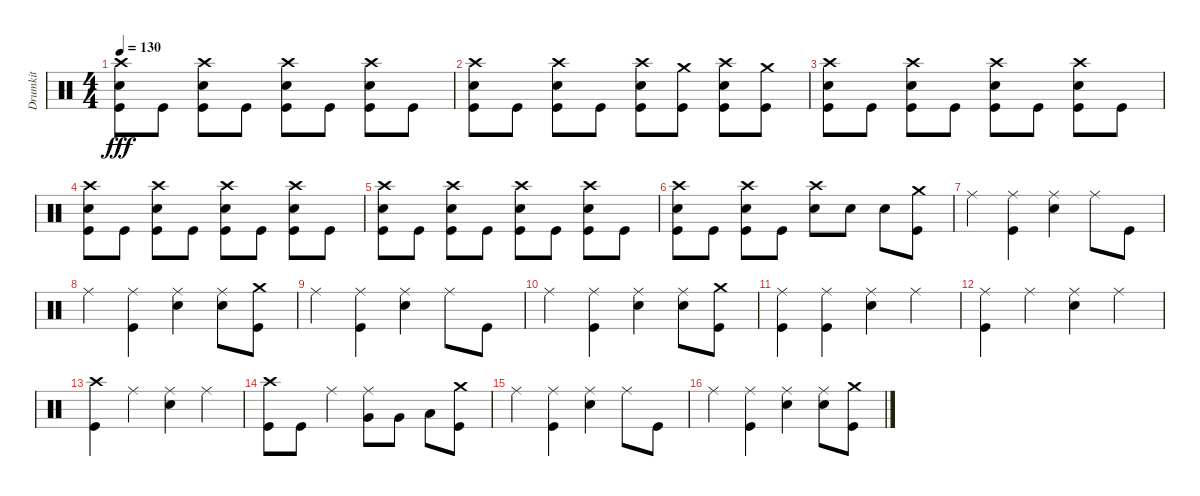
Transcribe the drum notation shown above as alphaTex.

\track ("Drumkit" "Drumkit") {instrument percussion}
\staff {score}
\articulation defaults
\ts (4 4)
\tempo 130
\clef neutral
\ks c
("Kick (hit)" "Snare (hit) 2" "Crash high (hit)").8{dy fff} "Kick (hit)".8 ("Kick (hit)" "Snare (hit) 2" "Crash high (hit)").8 "Kick (hit)".8 ("Kick (hit)" "Snare (hit) 2" "Crash high (hit)").8 "Kick (hit)".8 ("Kick (hit)" "Snare (hit) 2" "Crash high (hit)").8 "Kick (hit)".8 |
("Kick (hit)" "Snare (hit) 2" "Crash high (hit)").8 "Kick (hit)".8 ("Kick (hit)" "Snare (hit) 2" "Crash high (hit)").8 "Kick (hit)".8 ("Kick (hit)" "Snare (hit) 2" "Crash high (hit)").8 ("Kick (hit)" "Crash medium (hit)").8 ("Kick (hit)" "Snare (hit) 2" "Crash high (hit)").8 ("Kick (hit)" "Crash medium (hit)").8 |
("Kick (hit)" "Snare (hit) 2" "Crash high (hit)").8 "Kick (hit)".8 ("Kick (hit)" "Snare (hit) 2" "Crash high (hit)").8 "Kick (hit)".8 ("Kick (hit)" "Snare (hit) 2" "Crash high (hit)").8 "Kick (hit)".8 ("Kick (hit)" "Snare (hit) 2" "Crash high (hit)").8 "Kick (hit)".8 |
("Kick (hit)" "Snare (hit) 2" "Crash high (hit)").8 "Kick (hit)".8 ("Kick (hit)" "Snare (hit) 2" "Crash high (hit)").8 "Kick (hit)".8 ("Kick (hit)" "Snare (hit) 2" "Crash high (hit)").8 "Kick (hit)".8 ("Kick (hit)" "Snare (hit) 2" "Crash high (hit)").8 "Kick (hit)".8 |
("Kick (hit)" "Snare (hit) 2" "Crash high (hit)").8 "Kick (hit)".8 ("Kick (hit)" "Snare (hit) 2" "Crash high (hit)").8 "Kick (hit)".8 ("Kick (hit)" "Snare (hit) 2" "Crash high (hit)").8 "Kick (hit)".8 ("Kick (hit)" "Snare (hit) 2" "Crash high (hit)").8 "Kick (hit)".8 |
("Kick (hit)" "Snare (hit) 2" "Crash high (hit)").8 "Kick (hit)".8 ("Kick (hit)" "Snare (hit) 2" "Crash high (hit)").8 "Kick (hit)".8 ("Snare (hit) 2" "Crash high (hit)").8 "Snare (hit) 2".8 "Snare (hit) 2".8 ("Crash medium (hit)" "Kick (hit)").8 |
"Ride (middle)".4 ("Ride (middle)" "Kick (hit)").4 ("Ride (middle)" "Snare (hit) 2").4 "Ride (middle)".8 "Kick (hit)".8 |
"Ride (middle)".4 ("Ride (middle)" "Kick (hit)").4 ("Ride (middle)" "Snare (hit) 2").4 ("Ride (middle)" "Snare (hit) 2").8 ("Kick (hit)" "Crash medium (hit)").8 |
"Ride (middle)".4 ("Ride (middle)" "Kick (hit)").4 ("Ride (middle)" "Snare (hit) 2").4 "Ride (middle)".8 "Kick (hit)".8 |
"Ride (middle)".4 ("Ride (middle)" "Kick (hit)").4 ("Ride (middle)" "Snare (hit) 2").4 ("Ride (middle)" "Snare (hit) 2").8 ("Kick (hit)" "Crash medium (hit)").8 |
("Ride (middle)" "Kick (hit)").4 ("Ride (middle)" "Kick (hit)").4 ("Ride (middle)" "Snare (hit) 2").4 "Ride (middle)".4 |
("Ride (middle)" "Kick (hit)").4 "Ride (middle)".4 ("Ride (middle)" "Snare (hit) 2").4 "Ride (middle)".4 |
("Kick (hit)" "Crash high (hit)").4 "Ride (middle)".4 ("Ride (middle)" "Snare (hit) 2").4 "Ride (middle)".4 |
("Kick (hit)" "Crash high (hit)").8 "Kick (hit)".8 "Ride (middle)".4 ("Ride (middle)" "Very Low Tom (hit)").8 "Very Low Tom (hit)".8 "Low Tom (hit)".8 ("Crash medium (hit)" "Kick (hit)").8 |
"Ride (middle)".4 ("Ride (middle)" "Kick (hit)").4 ("Ride (middle)" "Snare (hit) 2").4 "Ride (middle)".8 "Kick (hit)".8 |
"Ride (middle)".4 ("Ride (middle)" "Kick (hit)").4 ("Ride (middle)" "Snare (hit) 2").4 ("Ride (middle)" "Snare (hit) 2").8 ("Kick (hit)" "Crash medium (hit)").8
